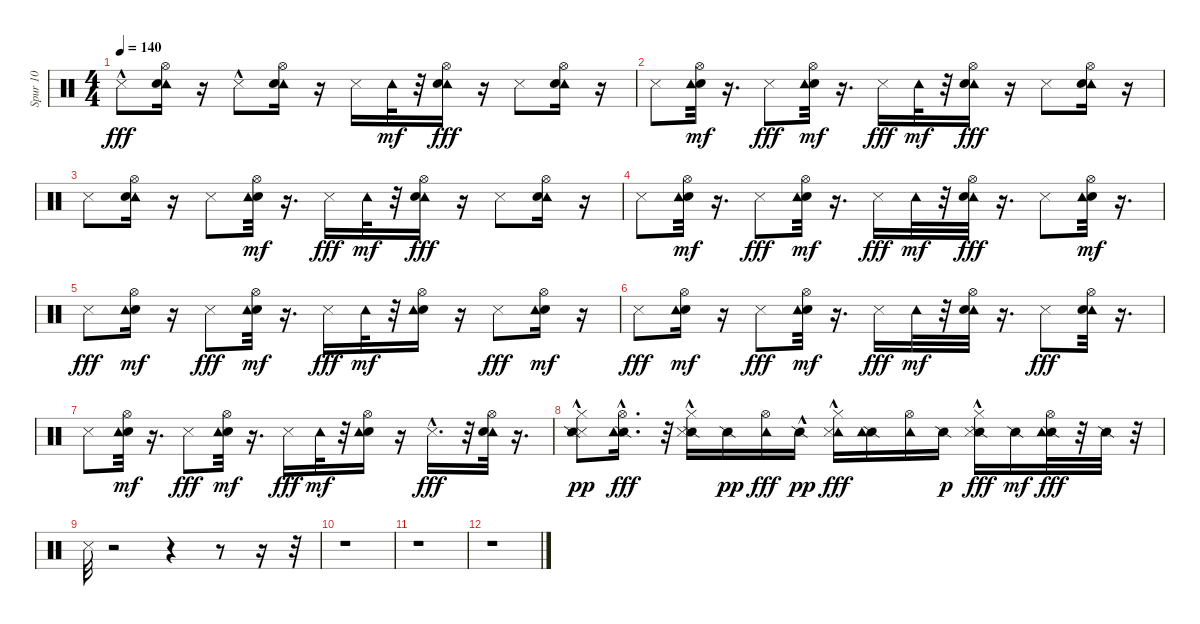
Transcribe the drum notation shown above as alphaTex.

\track ("Spur 10" "Spur 10") {instrument percussion}
\staff {score}
\articulation defaults
\ts (4 4)
\tempo 140
\clef neutral
\ks c "Metronome (hit)"{hac}.8{dy fff}
("Tambourine (hit)" "Hi-Hat (open)" "Snare (hit)").16 r.16 "Metronome (hit)"{hac}.8 ("Tambourine (hit)" "Hi-Hat (open)" "Snare (hit)").16 r.16 "Metronome (hit)".16 "Tambourine (hit)".32{dy mf} r.32 ("Tambourine (hit)" "Hi-Hat (open)" "Snare (hit)").16{dy fff} r.16 "Metronome (hit)".8 ("Tambourine (hit)" "Hi-Hat (open)" "Snare (hit)").16 r.16 |
"Metronome (hit)".8 ("Hi-Hat (open)" "Snare (hit)" "Tambourine (hit)").32{dy mf} r.16{d} "Metronome (hit)".8{dy fff} ("Hi-Hat (open)" "Snare (hit)" "Tambourine (hit)").32{dy mf} r.16{d} "Metronome (hit)".16{dy fff} "Tambourine (hit)".32{dy mf} r.32 ("Tambourine (hit)" "Hi-Hat (open)" "Snare (hit)").16{dy fff} r.16 "Metronome (hit)".8 ("Tambourine (hit)" "Hi-Hat (open)" "Snare (hit)").16 r.16 |
"Metronome (hit)".8 ("Tambourine (hit)" "Hi-Hat (open)" "Snare (hit)").16 r.16 "Metronome (hit)".8 ("Hi-Hat (open)" "Snare (hit)" "Tambourine (hit)").32{dy mf} r.16{d} "Metronome (hit)".16{dy fff} "Tambourine (hit)".32{dy mf} r.32 ("Tambourine (hit)" "Hi-Hat (open)" "Snare (hit)").16{dy fff} r.16 "Metronome (hit)".8 ("Tambourine (hit)" "Hi-Hat (open)" "Snare (hit)").16 r.16 |
"Metronome (hit)".8 ("Snare (hit)" "Hi-Hat (open)" "Tambourine (hit)").32{dy mf} r.16{d} "Metronome (hit)".8{dy fff} ("Hi-Hat (open)" "Snare (hit)" "Tambourine (hit)").32{dy mf} r.16{d} "Metronome (hit)".16{dy fff} "Tambourine (hit)".32{dy mf} r.32 ("Tambourine (hit)" "Hi-Hat (open)" "Snare (hit)").32{dy fff} r.16{d} "Metronome (hit)".8 ("Hi-Hat (open)" "Snare (hit)" "Tambourine (hit)").32{dy mf} r.16{d} |
"Metronome (hit)".8{dy fff} ("Hi-Hat (open)" "Snare (hit)" "Tambourine (hit)").16{dy mf} r.16 "Metronome (hit)".8{dy fff} ("Hi-Hat (open)" "Snare (hit)" "Tambourine (hit)").32{dy mf} r.16{d} "Metronome (hit)".16{dy fff} "Tambourine (hit)".32{dy mf} r.32 ("Hi-Hat (open)" "Snare (hit)" "Tambourine (hit)").16 r.16 "Metronome (hit)".8{dy fff} ("Snare (hit)" "Hi-Hat (open)" "Tambourine (hit)").16{dy mf} r.16 |
"Metronome (hit)".8{dy fff} ("Hi-Hat (open)" "Snare (hit)" "Tambourine (hit)").16{dy mf} r.16 "Metronome (hit)".8{dy fff} ("Hi-Hat (open)" "Snare (hit)" "Tambourine (hit)").32{dy mf} r.16{d} "Metronome (hit)".16{dy fff} "Tambourine (hit)".32{dy mf} r.32 ("Tambourine (hit)" "Snare (hit)" "Hi-Hat (open)").32 r.16{d} "Metronome (hit)".8{dy fff} ("Tambourine (hit)" "Hi-Hat (open)" "Snare (hit)").32 r.16{d} |
"Metronome (hit)".8 ("Hi-Hat (open)" "Snare (hit)" "Tambourine (hit)").32{dy mf} r.16{d} "Metronome (hit)".8{dy fff} ("Hi-Hat (open)" "Snare (hit)" "Tambourine (hit)").32{dy mf} r.16{d} "Metronome (hit)".16{dy fff} "Tambourine (hit)".32{dy mf} r.32 ("Hi-Hat (open)" "Snare (hit)" "Tambourine (hit)").16 r.16 "Metronome (hit)"{hac}.16{d dy fff} r.32 ("Tambourine (hit)" "Hi-Hat (open)" "Snare (hit)").32 r.16{d} |
("Metronome (hit)"{hac} "Hi-Hat (closed)"{hac} "Snare (side stick) 2").8{dy pp} ("Snare (side stick) 2"{hac} "Hi-Hat (open)" "Tambourine (hit)").16{d dy fff} r.32 ("Snare (side stick) 2" "Hi-Hat (closed)"{hac} "Metronome (hit)"{hac}).16 "Snare (side stick) 2".16{dy pp} ("Hi-Hat (open)" "Tambourine (hit)").16{dy fff} "Snare (side stick) 2"{hac}.16{dy pp} ("Hi-Hat (closed)" "Tambourine (hit)" "Metronome (hit)"{hac}).16{dy fff} ("Snare (side stick) 2" "Tambourine (hit)").16 ("Hi-Hat (open)" "Tambourine (hit)").16 "Snare (side stick) 2".16{dy p} ("Snare (side stick) 2" "Hi-Hat (closed)"{hac} "Metronome (hit)").16{dy fff} "Snare (side stick) 2".16{dy mf} ("Hi-Hat (open)" "Snare (side stick) 2" "Tambourine (hit)").32{dy fff} r.32 "Snare (side stick) 2".32 r.32 |
"Metronome (hit)".32 r.2 r.4 r.8 r.16 r.32 |
r.1 |
r.1 |
r.1
